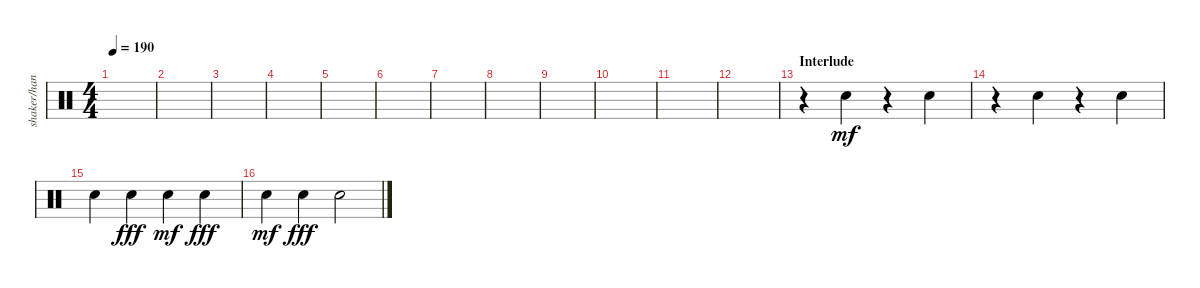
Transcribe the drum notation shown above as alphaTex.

\track ("shaker/hand clap" "shaker/han") {instrument percussion}
\staff {score}
\articulation defaults
\ts (4 4)
\tempo 190
\clef neutral
\ks c
|
|
|
|
|
|
|
|
|
|
|
|
\section ("" "Interlude")
r.4 "Hand Clap (hit)".4{dy mf} r.4 "Hand Clap (hit)".4 |
r.4 "Hand Clap (hit)".4 r.4 "Hand Clap (hit)".4 |
"Hand Clap (hit)".4{balance 0} "Hand Clap (hit)".4{dy fff balance 16} "Hand Clap (hit)".4{dy mf balance 0} "Hand Clap (hit)".4{dy fff balance 16} |
"Hand Clap (hit)".4{dy mf balance 0} "Hand Clap (hit)".4{dy fff balance 16} "Hand Clap (hit)".2
